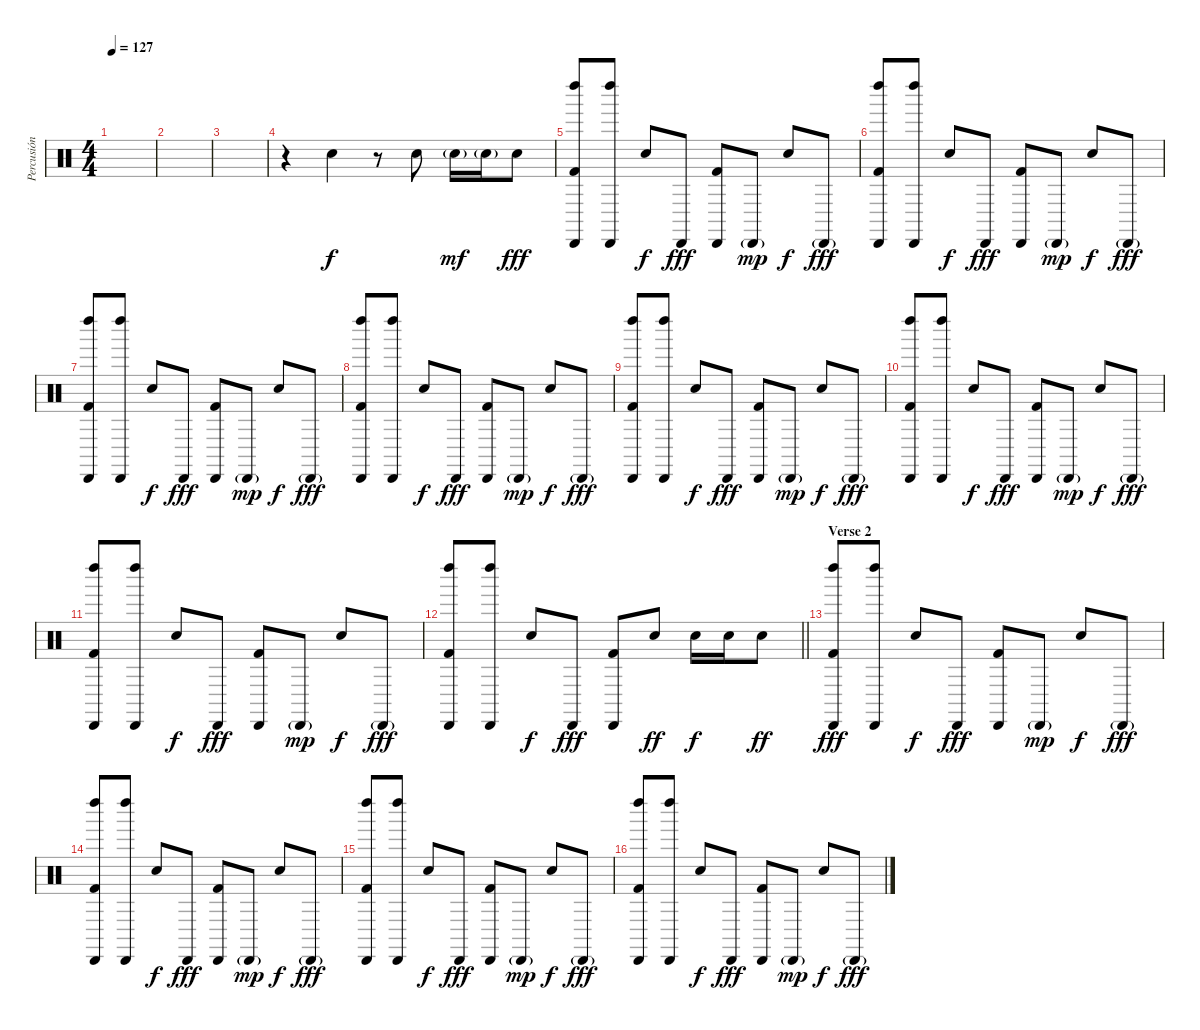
\track ("Percusión" "Percusión") {instrument percussion}
\staff {score}
\articulation defaults
\ts (4 4)
\tempo 127
\clef neutral
\ks c
|
|
|
r.4 "Hand Clap (hit)".4{dy f} r.8 "Electric Snare (hit)".8 "Electric Snare (hit)"{g}.16{dy mf} "Electric Snare (hit)"{g}.16 "Electric Snare (hit)".8{dy fff} |
("Left Maraca (hit)" "Cabasa (hit)" "Kick (hit) 2").8 ("Left Maraca (hit)" "Cabasa (hit)").8 "Electric Snare (hit)".8{dy f} "Cabasa (hit)".8{dy fff} ("Cabasa (hit)" "Kick (hit) 2").8 "Cabasa (hit)"{g}.8{dy mp} "Electric Snare (hit)".8{dy f} "Cabasa (hit)"{g}.8{dy fff} |
("Left Maraca (hit)" "Cabasa (hit)" "Kick (hit) 2").8 ("Left Maraca (hit)" "Cabasa (hit)").8 "Electric Snare (hit)".8{dy f} "Cabasa (hit)".8{dy fff} ("Cabasa (hit)" "Kick (hit) 2").8 "Cabasa (hit)"{g}.8{dy mp} "Electric Snare (hit)".8{dy f} "Cabasa (hit)"{g}.8{dy fff} |
("Left Maraca (hit)" "Cabasa (hit)" "Kick (hit) 2").8 ("Left Maraca (hit)" "Cabasa (hit)").8 "Electric Snare (hit)".8{dy f} "Cabasa (hit)".8{dy fff} ("Cabasa (hit)" "Kick (hit) 2").8 "Cabasa (hit)"{g}.8{dy mp} "Electric Snare (hit)".8{dy f} "Cabasa (hit)"{g}.8{dy fff} |
("Left Maraca (hit)" "Cabasa (hit)" "Kick (hit) 2").8 ("Left Maraca (hit)" "Cabasa (hit)").8 "Electric Snare (hit)".8{dy f} "Cabasa (hit)".8{dy fff} ("Cabasa (hit)" "Kick (hit) 2").8 "Cabasa (hit)"{g}.8{dy mp} "Electric Snare (hit)".8{dy f} "Cabasa (hit)"{g}.8{dy fff} |
("Left Maraca (hit)" "Cabasa (hit)" "Kick (hit) 2").8 ("Left Maraca (hit)" "Cabasa (hit)").8 "Electric Snare (hit)".8{dy f} "Cabasa (hit)".8{dy fff} ("Cabasa (hit)" "Kick (hit) 2").8 "Cabasa (hit)"{g}.8{dy mp} "Electric Snare (hit)".8{dy f} "Cabasa (hit)"{g}.8{dy fff} |
("Left Maraca (hit)" "Cabasa (hit)" "Kick (hit) 2").8 ("Left Maraca (hit)" "Cabasa (hit)").8 "Electric Snare (hit)".8{dy f} "Cabasa (hit)".8{dy fff} ("Cabasa (hit)" "Kick (hit) 2").8 "Cabasa (hit)"{g}.8{dy mp} "Electric Snare (hit)".8{dy f} "Cabasa (hit)"{g}.8{dy fff} |
("Left Maraca (hit)" "Cabasa (hit)" "Kick (hit) 2").8 ("Left Maraca (hit)" "Cabasa (hit)").8 "Electric Snare (hit)".8{dy f} "Cabasa (hit)".8{dy fff} ("Cabasa (hit)" "Kick (hit) 2").8 "Cabasa (hit)"{g}.8{dy mp} "Electric Snare (hit)".8{dy f} "Cabasa (hit)"{g}.8{dy fff} |
\barLineRight lightlight
("Left Maraca (hit)" "Cabasa (hit)" "Kick (hit) 2").8 ("Left Maraca (hit)" "Cabasa (hit)").8 "Electric Snare (hit)".8{dy f} "Cabasa (hit)".8{dy fff} ("Cabasa (hit)" "Kick (hit) 2").8 "Electric Snare (hit)".8{dy ff} "Electric Snare (hit)".16{dy f} "Electric Snare (hit)".16 "Electric Snare (hit)".8{dy ff} |
\section ("" "Verse 2")
("Left Maraca (hit)" "Cabasa (hit)" "Kick (hit) 2").8{dy fff} ("Left Maraca (hit)" "Cabasa (hit)").8 "Electric Snare (hit)".8{dy f} "Cabasa (hit)".8{dy fff} ("Cabasa (hit)" "Kick (hit) 2").8 "Cabasa (hit)"{g}.8{dy mp} "Electric Snare (hit)".8{dy f} "Cabasa (hit)"{g}.8{dy fff} |
("Left Maraca (hit)" "Cabasa (hit)" "Kick (hit) 2").8 ("Left Maraca (hit)" "Cabasa (hit)").8 "Electric Snare (hit)".8{dy f} "Cabasa (hit)".8{dy fff} ("Cabasa (hit)" "Kick (hit) 2").8 "Cabasa (hit)"{g}.8{dy mp} "Electric Snare (hit)".8{dy f} "Cabasa (hit)"{g}.8{dy fff} |
("Left Maraca (hit)" "Cabasa (hit)" "Kick (hit) 2").8 ("Left Maraca (hit)" "Cabasa (hit)").8 "Electric Snare (hit)".8{dy f} "Cabasa (hit)".8{dy fff} ("Cabasa (hit)" "Kick (hit) 2").8 "Cabasa (hit)"{g}.8{dy mp} "Electric Snare (hit)".8{dy f} "Cabasa (hit)"{g}.8{dy fff} |
("Left Maraca (hit)" "Cabasa (hit)" "Kick (hit) 2").8 ("Left Maraca (hit)" "Cabasa (hit)").8 "Electric Snare (hit)".8{dy f} "Cabasa (hit)".8{dy fff} ("Cabasa (hit)" "Kick (hit) 2").8 "Cabasa (hit)"{g}.8{dy mp} "Electric Snare (hit)".8{dy f} "Cabasa (hit)"{g}.8{dy fff}
